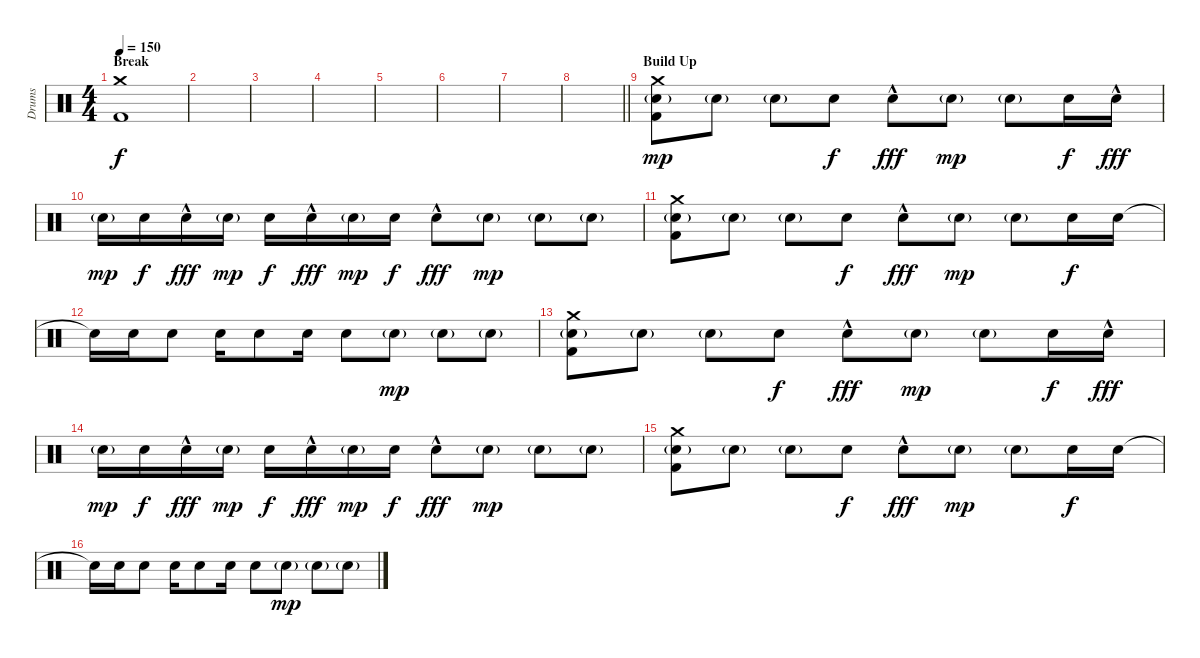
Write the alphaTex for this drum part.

\track ("Drums" "Drums") {instrument percussion}
\staff {score}
\articulation defaults
\ts (4 4)
\section ("" "Break")
\tempo 150
\clef neutral
\ks c
("Crash medium (hit)" "Kick (hit) 2").1{dy f} |
|
|
|
|
|
|
\barLineRight lightlight
|
\section ("" "Build Up")
("Crash medium (hit)" "Electric Snare (hit)"{g} "Kick (hit) 2").8{dy mp} "Electric Snare (hit)"{g}.8 "Electric Snare (hit)"{g}.8 "Electric Snare (hit)".8{dy f} "Electric Snare (hit)"{hac}.8{dy fff} "Electric Snare (hit)"{g}.8{dy mp} "Electric Snare (hit)"{g}.8 "Electric Snare (hit)".16{dy f} "Electric Snare (hit)"{hac}.16{dy fff} |
"Electric Snare (hit)"{g}.16{dy mp} "Electric Snare (hit)".16{dy f} "Electric Snare (hit)"{hac}.16{dy fff} "Electric Snare (hit)"{g}.16{dy mp} "Electric Snare (hit)".16{dy f} "Electric Snare (hit)"{hac}.16{dy fff} "Electric Snare (hit)"{g}.16{dy mp} "Electric Snare (hit)".16{dy f} "Electric Snare (hit)"{hac}.8{dy fff} "Electric Snare (hit)"{g}.8{dy mp} "Electric Snare (hit)"{g}.8 "Electric Snare (hit)"{g}.8 |
("Crash medium (hit)" "Electric Snare (hit)"{g} "Kick (hit) 2").8 "Electric Snare (hit)"{g}.8 "Electric Snare (hit)"{g}.8 "Electric Snare (hit)".8{dy f} "Electric Snare (hit)"{hac}.8{dy fff} "Electric Snare (hit)"{g}.8{dy mp} "Electric Snare (hit)"{g}.8 "Electric Snare (hit)".16{dy f} "Electric Snare (hit)".16 |
"Electric Snare (hit)"{t}.16 "Electric Snare (hit)".16 "Electric Snare (hit)".8 "Electric Snare (hit)".16 "Electric Snare (hit)".8 "Electric Snare (hit)".16 "Electric Snare (hit)".8 "Electric Snare (hit)"{g}.8{dy mp} "Electric Snare (hit)"{g}.8 "Electric Snare (hit)"{g}.8 |
("Crash medium (hit)" "Electric Snare (hit)"{g} "Kick (hit) 2").8 "Electric Snare (hit)"{g}.8 "Electric Snare (hit)"{g}.8 "Electric Snare (hit)".8{dy f} "Electric Snare (hit)"{hac}.8{dy fff} "Electric Snare (hit)"{g}.8{dy mp} "Electric Snare (hit)"{g}.8 "Electric Snare (hit)".16{dy f} "Electric Snare (hit)"{hac}.16{dy fff} |
"Electric Snare (hit)"{g}.16{dy mp} "Electric Snare (hit)".16{dy f} "Electric Snare (hit)"{hac}.16{dy fff} "Electric Snare (hit)"{g}.16{dy mp} "Electric Snare (hit)".16{dy f} "Electric Snare (hit)"{hac}.16{dy fff} "Electric Snare (hit)"{g}.16{dy mp} "Electric Snare (hit)".16{dy f} "Electric Snare (hit)"{hac}.8{dy fff} "Electric Snare (hit)"{g}.8{dy mp} "Electric Snare (hit)"{g}.8 "Electric Snare (hit)"{g}.8 |
("Crash medium (hit)" "Electric Snare (hit)"{g} "Kick (hit) 2").8 "Electric Snare (hit)"{g}.8 "Electric Snare (hit)"{g}.8 "Electric Snare (hit)".8{dy f} "Electric Snare (hit)"{hac}.8{dy fff} "Electric Snare (hit)"{g}.8{dy mp} "Electric Snare (hit)"{g}.8 "Electric Snare (hit)".16{dy f} "Electric Snare (hit)".16 |
"Electric Snare (hit)"{t}.16 "Electric Snare (hit)".16 "Electric Snare (hit)".8 "Electric Snare (hit)".16 "Electric Snare (hit)".8 "Electric Snare (hit)".16 "Electric Snare (hit)".8 "Electric Snare (hit)"{g}.8{dy mp} "Electric Snare (hit)"{g}.8 "Electric Snare (hit)"{g}.8
